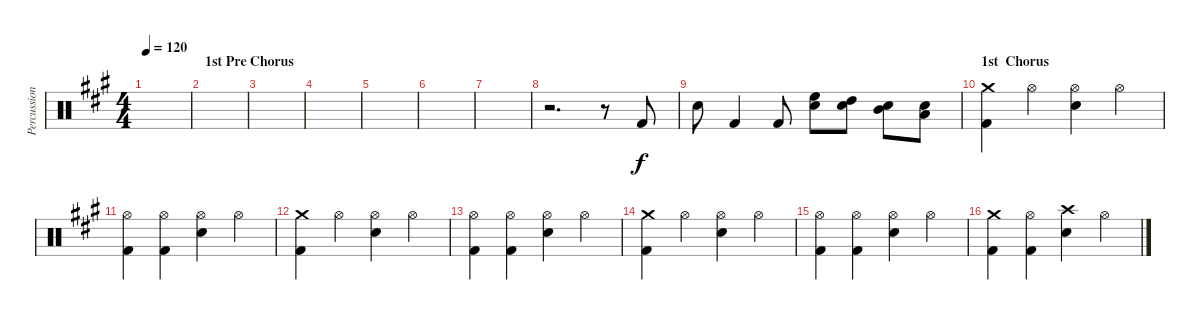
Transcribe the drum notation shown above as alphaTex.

\track ("Percussion" "Percussion") {instrument percussion}
\staff {score}
\articulation defaults
\ts (4 4)
\tempo 120
\clef neutral
\ks a
|
\section ("" "1st Pre Chorus")
|
|
|
|
|
|
r.2{d} r.8 "Kick (hit) 2".8 |
"Snare (hit) 2".8 "Kick (hit) 2".4 "Kick (hit) 2".8 ("High Floor Tom (hit)" "Snare (hit) 2").8 ("High Tom (hit)" "Snare (hit) 2").8 ("Mid Tom (hit)" "Snare (hit) 2").8 ("Low Tom (hit)" "Snare (hit) 2").8 |
\section ("" "1st  Chorus")
("Crash medium (hit)" "Kick (hit) 2").4 "Hi-Hat (open)".4 ("Hi-Hat (open)" "Snare (hit) 2").4 "Hi-Hat (open)".4 |
("Hi-Hat (open)" "Kick (hit) 2").4 ("Hi-Hat (open)" "Kick (hit) 2").4 ("Hi-Hat (open)" "Snare (hit) 2").4 "Hi-Hat (open)".4 |
("Crash medium (hit)" "Kick (hit) 2").4 "Hi-Hat (open)".4 ("Hi-Hat (open)" "Snare (hit) 2").4 "Hi-Hat (open)".4 |
("Hi-Hat (open)" "Kick (hit) 2").4 ("Hi-Hat (open)" "Kick (hit) 2").4 ("Hi-Hat (open)" "Snare (hit) 2").4 "Hi-Hat (open)".4 |
("Crash medium (hit)" "Kick (hit) 2").4 "Hi-Hat (open)".4 ("Hi-Hat (open)" "Snare (hit) 2").4 "Hi-Hat (open)".4 |
("Hi-Hat (open)" "Kick (hit) 2").4 ("Hi-Hat (open)" "Kick (hit) 2").4 ("Hi-Hat (open)" "Snare (hit) 2").4 "Hi-Hat (open)".4 |
("Crash medium (hit)" "Kick (hit) 2").4 ("Hi-Hat (open)" "Kick (hit) 2").4 ("Crash high (hit)" "Snare (hit) 2").4 "Hi-Hat (open)".4
